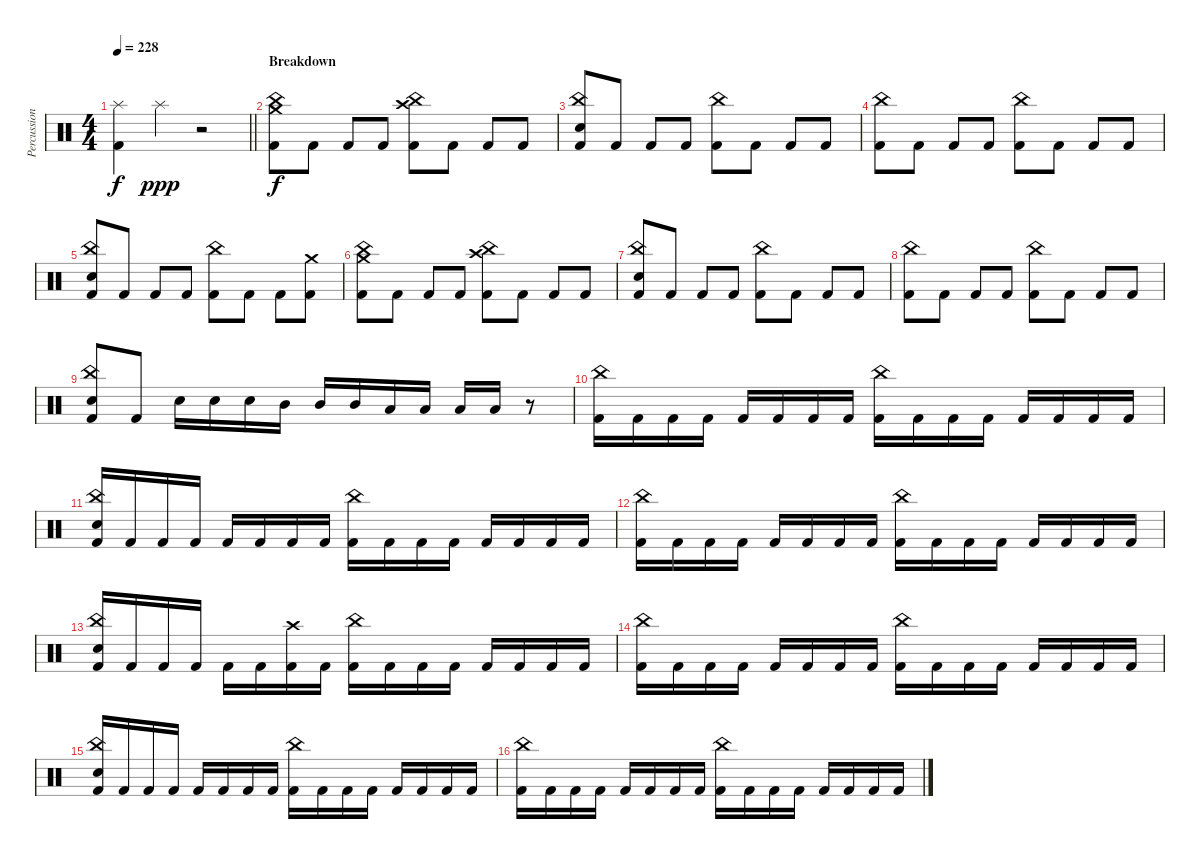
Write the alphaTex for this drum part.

\track ("Percussion" "Percussion") {instrument percussion}
\staff {score}
\articulation defaults
\ts (4 4)
\tempo 228
\clef neutral
\barLineRight lightlight
\ks c
("Splash (hit)" "Kick (hit) 2").4{dy f} "Splash (hit)".4{dy ppp} r.2 |
\section ("" "Breakdown")
("China (hit)" "Crash medium (hit)" "Kick (hit) 2").8{dy f} "Kick (hit) 2".8 "Kick (hit) 2".8 "Kick (hit) 2".8 ("China (hit)" "Crash high (hit)" "Kick (hit) 2").8 "Kick (hit) 2".8 "Kick (hit) 2".8 "Kick (hit) 2".8 |
("China (hit)" "Electric Snare (hit)" "Kick (hit) 2").8 "Kick (hit) 2".8 "Kick (hit) 2".8 "Kick (hit) 2".8 ("China (hit)" "Kick (hit) 2").8 "Kick (hit) 2".8 "Kick (hit) 2".8 "Kick (hit) 2".8 |
("China (hit)" "Kick (hit) 2").8 "Kick (hit) 2".8 "Kick (hit) 2".8 "Kick (hit) 2".8 ("China (hit)" "Kick (hit) 2").8 "Kick (hit) 2".8 "Kick (hit) 2".8 "Kick (hit) 2".8 |
("China (hit)" "Electric Snare (hit)" "Kick (hit) 2").8 "Kick (hit) 2".8 "Kick (hit) 2".8 "Kick (hit) 2".8 ("China (hit)" "Kick (hit) 2").8 "Kick (hit) 2".8 "Kick (hit) 2".8 ("Crash medium (hit)" "Kick (hit) 2").8 |
("China (hit)" "Crash medium (hit)" "Kick (hit) 2").8 "Kick (hit) 2".8 "Kick (hit) 2".8 "Kick (hit) 2".8 ("China (hit)" "Crash high (hit)" "Kick (hit) 2").8 "Kick (hit) 2".8 "Kick (hit) 2".8 "Kick (hit) 2".8 |
("China (hit)" "Electric Snare (hit)" "Kick (hit) 2").8 "Kick (hit) 2".8 "Kick (hit) 2".8 "Kick (hit) 2".8 ("China (hit)" "Kick (hit) 2").8 "Kick (hit) 2".8 "Kick (hit) 2".8 "Kick (hit) 2".8 |
("China (hit)" "Kick (hit) 2").8 "Kick (hit) 2".8 "Kick (hit) 2".8 "Kick (hit) 2".8 ("China (hit)" "Kick (hit) 2").8 "Kick (hit) 2".8 "Kick (hit) 2".8 "Kick (hit) 2".8 |
("China (hit)" "Electric Snare (hit)" "Kick (hit) 2").8 "Kick (hit) 2".8 "Electric Snare (hit)".16 "Electric Snare (hit)".16 "Electric Snare (hit)".16 "Mid Tom (hit)".16 "Mid Tom (hit)".16 "Mid Tom (hit)".16 "Low Tom (hit)".16 "Low Tom (hit)".16 "Low Tom (hit)".16 "Low Tom (hit)".16 r.8 |
("China (hit)" "Kick (hit) 2").16 "Kick (hit) 2".16 "Kick (hit) 2".16 "Kick (hit) 2".16 "Kick (hit) 2".16 "Kick (hit) 2".16 "Kick (hit) 2".16 "Kick (hit) 2".16 ("China (hit)" "Kick (hit) 2").16 "Kick (hit) 2".16 "Kick (hit) 2".16 "Kick (hit) 2".16 "Kick (hit) 2".16 "Kick (hit) 2".16 "Kick (hit) 2".16 "Kick (hit) 2".16 |
("China (hit)" "Electric Snare (hit)" "Kick (hit) 2").16 "Kick (hit) 2".16 "Kick (hit) 2".16 "Kick (hit) 2".16 "Kick (hit) 2".16 "Kick (hit) 2".16 "Kick (hit) 2".16 "Kick (hit) 2".16 ("China (hit)" "Kick (hit) 2").16 "Kick (hit) 2".16 "Kick (hit) 2".16 "Kick (hit) 2".16 "Kick (hit) 2".16 "Kick (hit) 2".16 "Kick (hit) 2".16 "Kick (hit) 2".16 |
("China (hit)" "Kick (hit) 2").16 "Kick (hit) 2".16 "Kick (hit) 2".16 "Kick (hit) 2".16 "Kick (hit) 2".16 "Kick (hit) 2".16 "Kick (hit) 2".16 "Kick (hit) 2".16 ("China (hit)" "Kick (hit) 2").16 "Kick (hit) 2".16 "Kick (hit) 2".16 "Kick (hit) 2".16 "Kick (hit) 2".16 "Kick (hit) 2".16 "Kick (hit) 2".16 "Kick (hit) 2".16 |
("China (hit)" "Electric Snare (hit)" "Kick (hit) 2").16 "Kick (hit) 2".16 "Kick (hit) 2".16 "Kick (hit) 2".16 "Kick (hit) 2".16 "Kick (hit) 2".16 ("Crash high (hit)" "Kick (hit) 2").16 "Kick (hit) 2".16 ("China (hit)" "Kick (hit) 2").16 "Kick (hit) 2".16 "Kick (hit) 2".16 "Kick (hit) 2".16 "Kick (hit) 2".16 "Kick (hit) 2".16 "Kick (hit) 2".16 "Kick (hit) 2".16 |
("China (hit)" "Kick (hit) 2").16 "Kick (hit) 2".16 "Kick (hit) 2".16 "Kick (hit) 2".16 "Kick (hit) 2".16 "Kick (hit) 2".16 "Kick (hit) 2".16 "Kick (hit) 2".16 ("China (hit)" "Kick (hit) 2").16 "Kick (hit) 2".16 "Kick (hit) 2".16 "Kick (hit) 2".16 "Kick (hit) 2".16 "Kick (hit) 2".16 "Kick (hit) 2".16 "Kick (hit) 2".16 |
("China (hit)" "Electric Snare (hit)" "Kick (hit) 2").16 "Kick (hit) 2".16 "Kick (hit) 2".16 "Kick (hit) 2".16 "Kick (hit) 2".16 "Kick (hit) 2".16 "Kick (hit) 2".16 "Kick (hit) 2".16 ("China (hit)" "Kick (hit) 2").16 "Kick (hit) 2".16 "Kick (hit) 2".16 "Kick (hit) 2".16 "Kick (hit) 2".16 "Kick (hit) 2".16 "Kick (hit) 2".16 "Kick (hit) 2".16 |
("China (hit)" "Kick (hit) 2").16 "Kick (hit) 2".16 "Kick (hit) 2".16 "Kick (hit) 2".16 "Kick (hit) 2".16 "Kick (hit) 2".16 "Kick (hit) 2".16 "Kick (hit) 2".16 ("China (hit)" "Kick (hit) 2").16 "Kick (hit) 2".16 "Kick (hit) 2".16 "Kick (hit) 2".16 "Kick (hit) 2".16 "Kick (hit) 2".16 "Kick (hit) 2".16 "Kick (hit) 2".16
